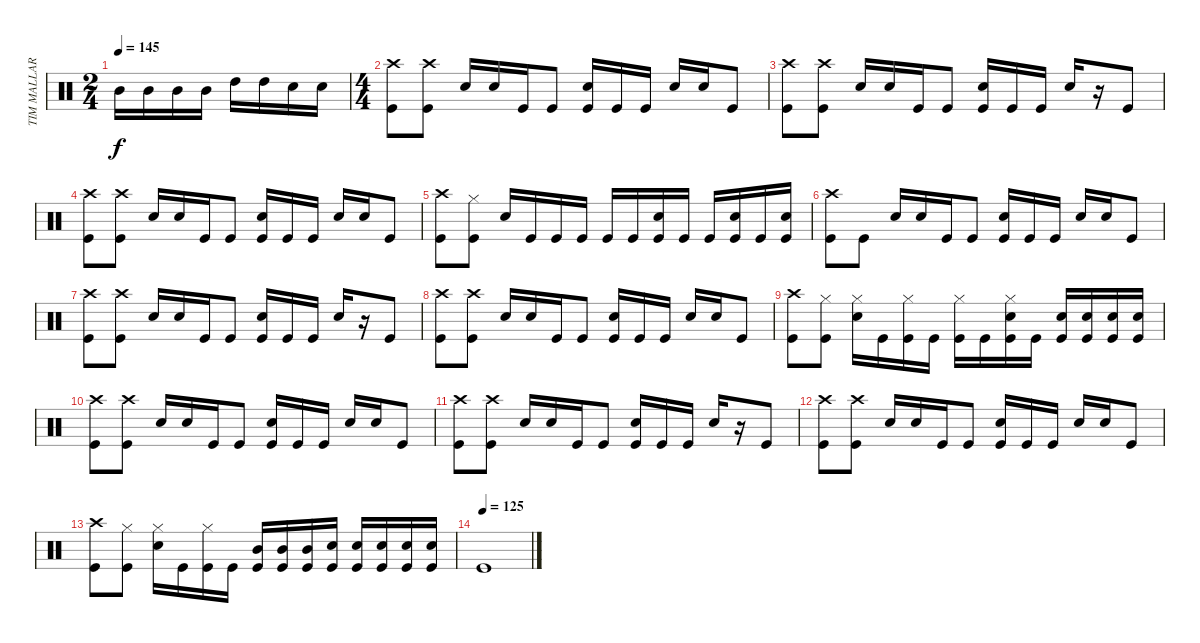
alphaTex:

\track ("TIM MALLARE - drums" "TIM MALLAR") {instrument percussion}
\staff {score}
\articulation defaults
\ts (2 4)
\tempo 145
\clef neutral
\ks c "Mid Tom (hit)".16{dy f} "Mid Tom (hit)".16 "Mid Tom (hit)".16 "Mid Tom (hit)".16 "High Tom (hit)".16 "High Tom (hit)".16 "Electric Snare (hit)".16 "Electric Snare (hit)".16
|
\ts (4 4)
("Crash high (hit)" "Kick (hit)").8 ("Crash high (hit)" "Kick (hit)").8 "Electric Snare (hit)".16 "Electric Snare (hit)".16 "Kick (hit)".16 "Kick (hit)".8 ("Electric Snare (hit)" "Kick (hit)").16 "Kick (hit)".16 "Kick (hit)".16 "Electric Snare (hit)".16 "Electric Snare (hit)".16 "Kick (hit)".8 |
("Crash high (hit)" "Kick (hit)").8 ("Crash high (hit)" "Kick (hit)").8 "Electric Snare (hit)".16 "Electric Snare (hit)".16 "Kick (hit)".16 "Kick (hit)".8 ("Electric Snare (hit)" "Kick (hit)").16 "Kick (hit)".16 "Kick (hit)".16 "Electric Snare (hit)".16 r.16 "Kick (hit)".8 |
("Crash high (hit)" "Kick (hit)").8 ("Crash high (hit)" "Kick (hit)").8 "Electric Snare (hit)".16 "Electric Snare (hit)".16 "Kick (hit)".16 "Kick (hit)".8 ("Electric Snare (hit)" "Kick (hit)").16 "Kick (hit)".16 "Kick (hit)".16 "Electric Snare (hit)".16 "Electric Snare (hit)".16 "Kick (hit)".8 |
("Crash high (hit)" "Kick (hit)").8 ("Hi-Hat (closed)" "Kick (hit)").8 "Electric Snare (hit)".16 "Kick (hit)".16 "Kick (hit)".16 "Kick (hit)".16 "Kick (hit)".16 "Kick (hit)".16 ("Electric Snare (hit)" "Kick (hit)").16 "Kick (hit)".16 "Kick (hit)".16 ("Electric Snare (hit)" "Kick (hit)").16 "Kick (hit)".16 ("Electric Snare (hit)" "Kick (hit)").16 |
("Crash high (hit)" "Kick (hit)").8 "Kick (hit)".8 "Electric Snare (hit)".16 "Electric Snare (hit)".16 "Kick (hit)".16 "Kick (hit)".8 ("Electric Snare (hit)" "Kick (hit)").16 "Kick (hit)".16 "Kick (hit)".16 "Electric Snare (hit)".16 "Electric Snare (hit)".16 "Kick (hit)".8 |
("Crash high (hit)" "Kick (hit)").8 ("Crash high (hit)" "Kick (hit)").8 "Electric Snare (hit)".16 "Electric Snare (hit)".16 "Kick (hit)".16 "Kick (hit)".8 ("Electric Snare (hit)" "Kick (hit)").16 "Kick (hit)".16 "Kick (hit)".16 "Electric Snare (hit)".16 r.16 "Kick (hit)".8 |
("Crash high (hit)" "Kick (hit)").8 ("Crash high (hit)" "Kick (hit)").8 "Electric Snare (hit)".16 "Electric Snare (hit)".16 "Kick (hit)".16 "Kick (hit)".8 ("Electric Snare (hit)" "Kick (hit)").16 "Kick (hit)".16 "Kick (hit)".16 "Electric Snare (hit)".16 "Electric Snare (hit)".16 "Kick (hit)".8 |
("Crash high (hit)" "Kick (hit)").8 ("Hi-Hat (closed)" "Kick (hit)").8 ("Hi-Hat (closed)" "Electric Snare (hit)").16 "Kick (hit)".16 ("Hi-Hat (closed)" "Kick (hit)").16 "Kick (hit)".16 ("Hi-Hat (closed)" "Kick (hit)").16 "Kick (hit)".16 ("Hi-Hat (closed)" "Electric Snare (hit)" "Kick (hit)").16 "Kick (hit)".16 ("Electric Snare (hit)" "Kick (hit)").16 ("Electric Snare (hit)" "Kick (hit)").16 ("Electric Snare (hit)" "Kick (hit)").16 ("Electric Snare (hit)" "Kick (hit)").16 |
("Crash high (hit)" "Kick (hit)").8 ("Crash high (hit)" "Kick (hit)").8 "Electric Snare (hit)".16 "Electric Snare (hit)".16 "Kick (hit)".16 "Kick (hit)".8 ("Electric Snare (hit)" "Kick (hit)").16 "Kick (hit)".16 "Kick (hit)".16 "Electric Snare (hit)".16 "Electric Snare (hit)".16 "Kick (hit)".8 |
("Crash high (hit)" "Kick (hit)").8 ("Crash high (hit)" "Kick (hit)").8 "Electric Snare (hit)".16 "Electric Snare (hit)".16 "Kick (hit)".16 "Kick (hit)".8 ("Electric Snare (hit)" "Kick (hit)").16 "Kick (hit)".16 "Kick (hit)".16 "Electric Snare (hit)".16 r.16 "Kick (hit)".8 |
("Crash high (hit)" "Kick (hit)").8 ("Crash high (hit)" "Kick (hit)").8 "Electric Snare (hit)".16 "Electric Snare (hit)".16 "Kick (hit)".16 "Kick (hit)".8 ("Electric Snare (hit)" "Kick (hit)").16 "Kick (hit)".16 "Kick (hit)".16 "Electric Snare (hit)".16 "Electric Snare (hit)".16 "Kick (hit)".8 |
("Crash high (hit)" "Kick (hit)").8 ("Hi-Hat (closed)" "Kick (hit)").8 ("Hi-Hat (closed)" "Electric Snare (hit)").16 "Kick (hit)".16 ("Hi-Hat (closed)" "Kick (hit)").16 "Kick (hit)".16 ("Mid Tom (hit)" "Kick (hit)").16 ("Mid Tom (hit)" "Kick (hit)").16 ("Mid Tom (hit)" "Kick (hit)").16 ("Electric Snare (hit)" "Kick (hit)").16 ("Electric Snare (hit)" "Kick (hit)").16 ("Electric Snare (hit)" "Kick (hit)").16 ("Electric Snare (hit)" "Kick (hit)").16 ("Electric Snare (hit)" "Kick (hit)").16 |
\tempo (125)
"Kick (hit)".1
